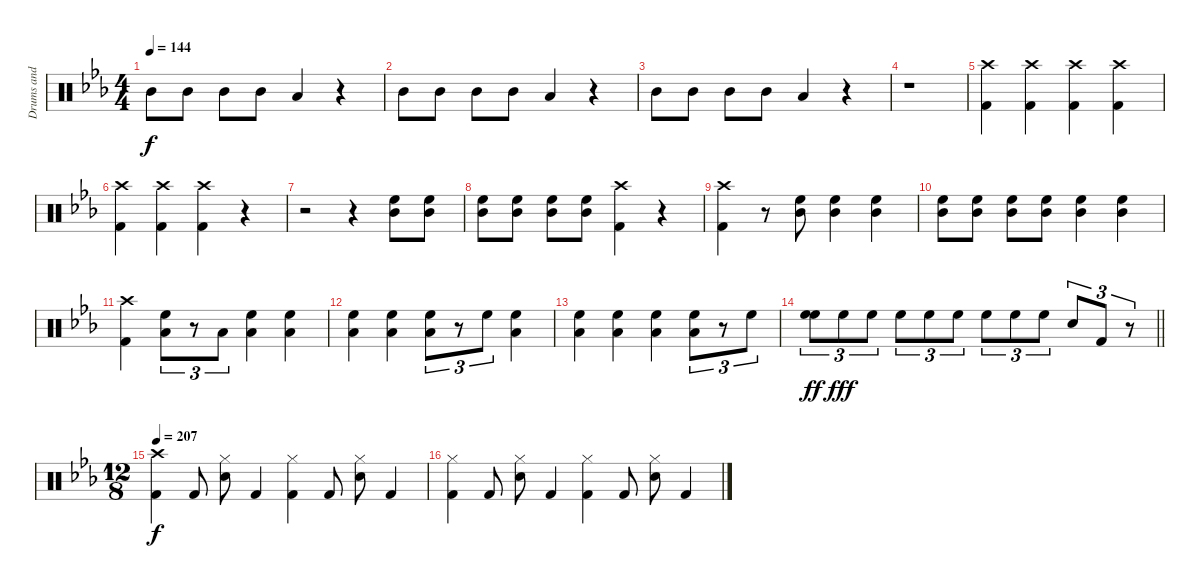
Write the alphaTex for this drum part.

\track ("Drums and percussion" "Drums and ") {instrument percussion}
\staff {score}
\articulation defaults
\ts (4 4)
\tempo 144
\clef neutral
\ks eb "Mid Tom (hit)".8{dy f} "Mid Tom (hit)".8 "Mid Tom (hit)".8 "Mid Tom (hit)".8 "Low Tom (hit)".4
r.4 |
"Mid Tom (hit)".8 "Mid Tom (hit)".8 "Mid Tom (hit)".8 "Mid Tom (hit)".8 "Low Tom (hit)".4 r.4 |
"Mid Tom (hit)".8 "Mid Tom (hit)".8 "Mid Tom (hit)".8 "Mid Tom (hit)".8 "Low Tom (hit)".4 r.4 |
r.1 |
("Crash high (hit)" "Kick (hit) 2").4 ("Crash high (hit)" "Kick (hit) 2").4 ("Crash high (hit)" "Kick (hit) 2").4 ("Crash high (hit)" "Kick (hit) 2").4 |
("Crash high (hit)" "Kick (hit) 2").4 ("Crash high (hit)" "Kick (hit) 2").4 ("Crash high (hit)" "Kick (hit) 2").4 r.4 |
r.2 r.4 ("High Floor Tom (hit)" "Mid Tom (hit)").8 ("High Floor Tom (hit)" "Mid Tom (hit)").8 |
("High Floor Tom (hit)" "Mid Tom (hit)").8 ("High Floor Tom (hit)" "Mid Tom (hit)").8 ("High Floor Tom (hit)" "Mid Tom (hit)").8 ("High Floor Tom (hit)" "Mid Tom (hit)").8 ("Crash high (hit)" "Kick (hit) 2").4 r.4 |
("Crash high (hit)" "Kick (hit) 2").4 r.8 ("High Floor Tom (hit)" "Mid Tom (hit)").8 ("High Floor Tom (hit)" "Mid Tom (hit)").4 ("High Floor Tom (hit)" "Mid Tom (hit)").4 |
("High Floor Tom (hit)" "Mid Tom (hit)").8 ("High Floor Tom (hit)" "Mid Tom (hit)").8 ("High Floor Tom (hit)" "Mid Tom (hit)").8 ("High Floor Tom (hit)" "Mid Tom (hit)").8 ("High Floor Tom (hit)" "Mid Tom (hit)").4 ("High Floor Tom (hit)" "Mid Tom (hit)").4 |
("Crash high (hit)" "Kick (hit) 2").4 ("High Floor Tom (hit)" "Low Tom (hit)").8{tu (3 2)} r.8{tu (3 2)} "Low Tom (hit)".8{tu (3 2)} ("High Floor Tom (hit)" "Low Tom (hit)").4 ("High Floor Tom (hit)" "Low Tom (hit)").4 |
("High Floor Tom (hit)" "Low Tom (hit)").4 ("High Floor Tom (hit)" "Low Tom (hit)").4 ("High Floor Tom (hit)" "Low Tom (hit)").8{tu (3 2)} r.8{tu (3 2)} "High Floor Tom (hit)".8{tu (3 2)} ("High Floor Tom (hit)" "Low Tom (hit)").4 |
("High Floor Tom (hit)" "Low Tom (hit)").4 ("High Floor Tom (hit)" "Low Tom (hit)").4 ("High Floor Tom (hit)" "Low Tom (hit)").4 ("High Floor Tom (hit)" "Low Tom (hit)").8{tu (3 2)} r.8{tu (3 2)} "High Floor Tom (hit)".8{tu (3 2)} |
\barLineRight lightlight
("High Floor Tom (hit)" "High Floor Tom (hit)").8{tu (3 2) dy ff} "High Floor Tom (hit)".8{tu (3 2) dy fff} "High Floor Tom (hit)".8{tu (3 2)} "High Floor Tom (hit)".8{tu (3 2)} "High Floor Tom (hit)".8{tu (3 2)} "High Floor Tom (hit)".8{tu (3 2)} "High Floor Tom (hit)".8{tu (3 2)} "High Floor Tom (hit)".8{tu (3 2)} "High Floor Tom (hit)".8{tu (3 2)} "Snare (hit) 2".8{tu (3 2)} "Kick (hit) 2".8{tu (3 2)} r.8{tu (3 2)} |
\ts (12 8)
\tempo 207
("Crash high (hit)" "Kick (hit) 2").4{dy f volume 14} "Kick (hit) 2".8 ("Hi-Hat (closed)" "Snare (hit) 2").8 "Kick (hit) 2".4 ("Hi-Hat (closed)" "Kick (hit) 2").4 "Kick (hit) 2".8 ("Hi-Hat (closed)" "Snare (hit) 2").8 "Kick (hit) 2".4 |
("Hi-Hat (closed)" "Kick (hit) 2").4 "Kick (hit) 2".8 ("Hi-Hat (closed)" "Snare (hit) 2").8 "Kick (hit) 2".4 ("Hi-Hat (closed)" "Kick (hit) 2").4 "Kick (hit) 2".8 ("Hi-Hat (closed)" "Snare (hit) 2").8 "Kick (hit) 2".4
